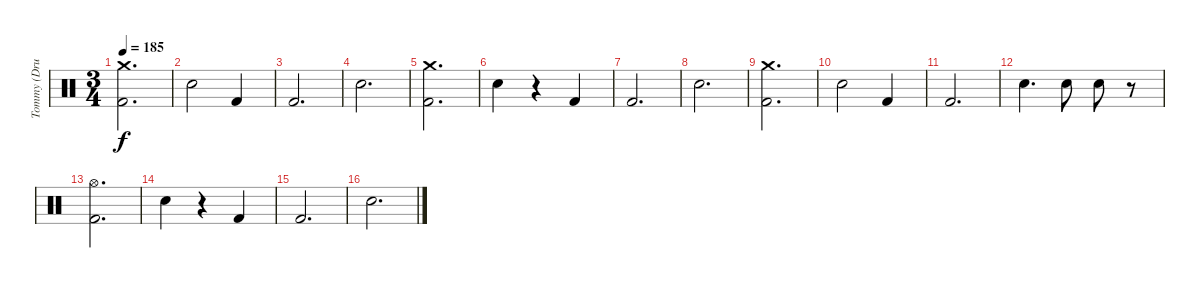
\track ("Tommy (Drums)" "Tommy (Dru") {instrument percussion}
\staff {score}
\articulation defaults
\ts (3 4)
\tempo 185
\clef neutral
\ks c
("Crash medium (hit)" "Kick (hit) 2").2{d dy f} |
"Electric Snare (hit)".2 "Kick (hit) 2".4 |
"Kick (hit) 2".2{d} |
"Electric Snare (hit)".2{d} |
("Crash medium (hit)" "Kick (hit) 2").2{d} |
"Electric Snare (hit)".4 r.4 "Kick (hit) 2".4 |
"Kick (hit) 2".2{d} |
"Electric Snare (hit)".2{d} |
("Crash medium (hit)" "Kick (hit) 2").2{d} |
"Electric Snare (hit)".2 "Kick (hit) 2".4 |
"Kick (hit) 2".2{d} |
"Electric Snare (hit)".4{d} "Electric Snare (hit)".8 "Electric Snare (hit)".8 r.8 |
("Hi-Hat (open)" "Kick (hit) 2").2{d} |
"Electric Snare (hit)".4 r.4 "Kick (hit) 2".4 |
"Kick (hit) 2".2{d} |
"Electric Snare (hit)".2{d}
